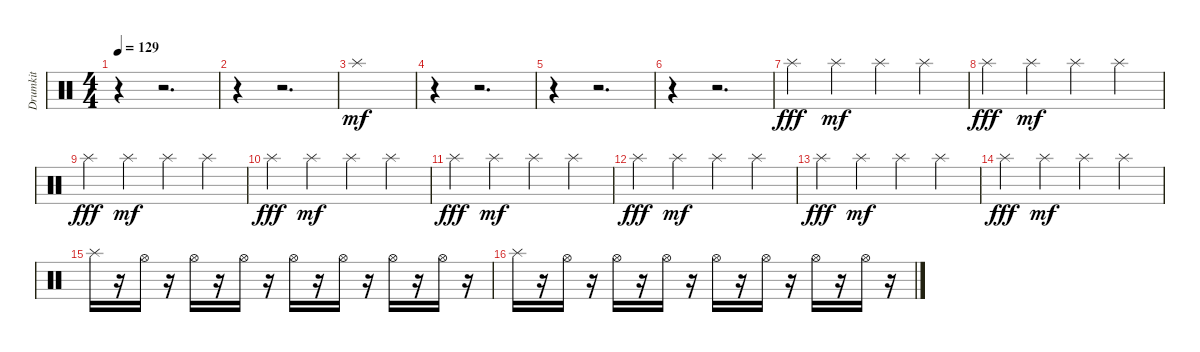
\track ("Drumkit" "Drumkit") {instrument percussion}
\staff {score}
\articulation defaults
\ts (4 4)
\tempo 129
\clef neutral
\ks c
r.4{dy mf} r.2{d} |
r.4 r.2{d} |
"Splash (hit)".1 |
r.4 r.2{d} |
r.4 r.2{d} |
r.4 r.2{d} |
"Splash (hit)".4{dy fff} "Splash (hit)".4{dy mf} "Splash (hit)".4 "Splash (hit)".4 |
"Splash (hit)".4{dy fff} "Splash (hit)".4{dy mf} "Splash (hit)".4 "Splash (hit)".4 |
"Splash (hit)".4{dy fff} "Splash (hit)".4{dy mf} "Splash (hit)".4 "Splash (hit)".4 |
"Splash (hit)".4{dy fff} "Splash (hit)".4{dy mf} "Splash (hit)".4 "Splash (hit)".4 |
"Splash (hit)".4{dy fff} "Splash (hit)".4{dy mf} "Splash (hit)".4 "Splash (hit)".4 |
"Splash (hit)".4{dy fff} "Splash (hit)".4{dy mf} "Splash (hit)".4 "Splash (hit)".4 |
"Splash (hit)".4{dy fff} "Splash (hit)".4{dy mf} "Splash (hit)".4 "Splash (hit)".4 |
"Splash (hit)".4{dy fff} "Splash (hit)".4{dy mf} "Splash (hit)".4 "Splash (hit)".4 |
"Splash (hit)".16 r.16 "Hi-Hat (open)".16 r.16 "Hi-Hat (open)".16 r.16 "Hi-Hat (open)".16 r.16 "Hi-Hat (open)".16 r.16 "Hi-Hat (open)".16 r.16 "Hi-Hat (open)".16 r.16 "Hi-Hat (open)".16 r.16 |
"Splash (hit)".16 r.16 "Hi-Hat (open)".16 r.16 "Hi-Hat (open)".16 r.16 "Hi-Hat (open)".16 r.16 "Hi-Hat (open)".16 r.16 "Hi-Hat (open)".16 r.16 "Hi-Hat (open)".16 r.16 "Hi-Hat (open)".16 r.16
